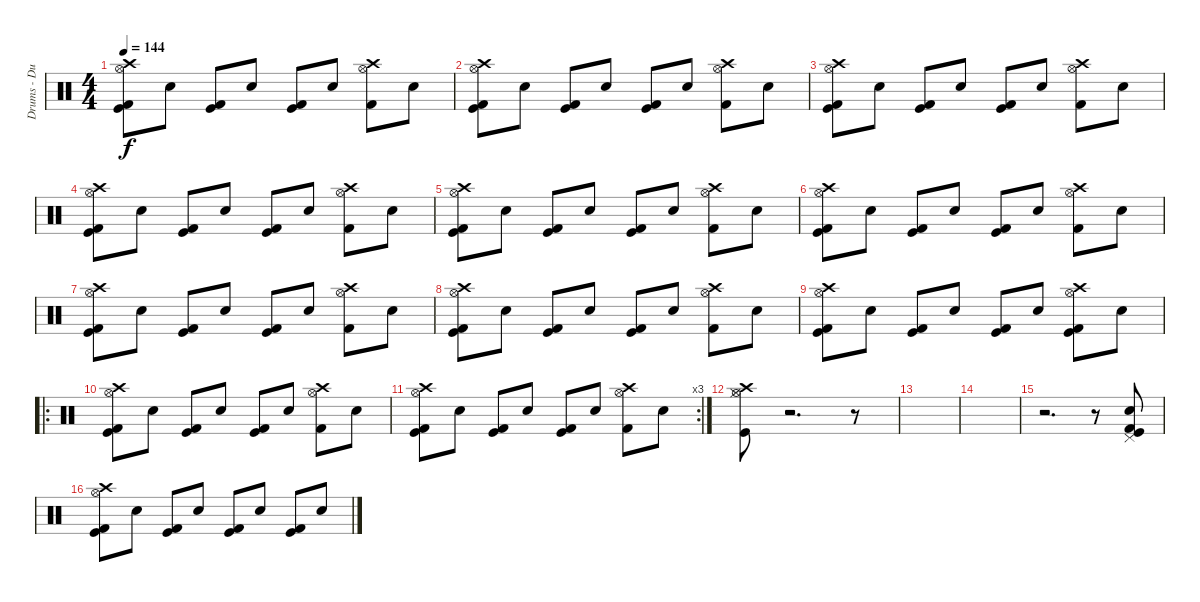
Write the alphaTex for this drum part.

\track ("Drums - Duncan Scott" "Drums - Du") {instrument percussion}
\staff {score}
\articulation defaults
\ts (4 4)
\tempo 144
\clef neutral
\ks c
("Hi-Hat (open)" "Crash high (hit)" "Kick (hit)" "Kick (hit) 2").8{dy f} "Electric Snare (hit)".8 ("Kick (hit)" "Kick (hit) 2").8 "Electric Snare (hit)".8 ("Kick (hit)" "Kick (hit) 2").8 "Electric Snare (hit)".8 ("Hi-Hat (open)" "Crash high (hit)" "Kick (hit) 2").8 "Electric Snare (hit)".8 |
("Hi-Hat (open)" "Crash high (hit)" "Kick (hit)" "Kick (hit) 2").8 "Electric Snare (hit)".8 ("Kick (hit)" "Kick (hit) 2").8 "Electric Snare (hit)".8 ("Kick (hit)" "Kick (hit) 2").8 "Electric Snare (hit)".8 ("Hi-Hat (open)" "Crash high (hit)" "Kick (hit) 2").8 "Electric Snare (hit)".8 |
("Hi-Hat (open)" "Crash high (hit)" "Kick (hit)" "Kick (hit) 2").8 "Electric Snare (hit)".8 ("Kick (hit)" "Kick (hit) 2").8 "Electric Snare (hit)".8 ("Kick (hit)" "Kick (hit) 2").8 "Electric Snare (hit)".8 ("Hi-Hat (open)" "Crash high (hit)" "Kick (hit) 2").8 "Electric Snare (hit)".8 |
("Hi-Hat (open)" "Crash high (hit)" "Kick (hit)" "Kick (hit) 2").8 "Electric Snare (hit)".8 ("Kick (hit)" "Kick (hit) 2").8 "Electric Snare (hit)".8 ("Kick (hit)" "Kick (hit) 2").8 "Electric Snare (hit)".8 ("Hi-Hat (open)" "Crash high (hit)" "Kick (hit) 2").8 "Electric Snare (hit)".8 |
("Hi-Hat (open)" "Crash high (hit)" "Kick (hit)" "Kick (hit) 2").8 "Electric Snare (hit)".8 ("Kick (hit)" "Kick (hit) 2").8 "Electric Snare (hit)".8 ("Kick (hit)" "Kick (hit) 2").8 "Electric Snare (hit)".8 ("Hi-Hat (open)" "Crash high (hit)" "Kick (hit) 2").8 "Electric Snare (hit)".8 |
("Hi-Hat (open)" "Crash high (hit)" "Kick (hit)" "Kick (hit) 2").8 "Electric Snare (hit)".8 ("Kick (hit)" "Kick (hit) 2").8 "Electric Snare (hit)".8 ("Kick (hit)" "Kick (hit) 2").8 "Electric Snare (hit)".8 ("Hi-Hat (open)" "Crash high (hit)" "Kick (hit) 2").8 "Electric Snare (hit)".8 |
("Hi-Hat (open)" "Crash high (hit)" "Kick (hit)" "Kick (hit) 2").8 "Electric Snare (hit)".8 ("Kick (hit)" "Kick (hit) 2").8 "Electric Snare (hit)".8 ("Kick (hit)" "Kick (hit) 2").8 "Electric Snare (hit)".8 ("Hi-Hat (open)" "Crash high (hit)" "Kick (hit) 2").8 "Electric Snare (hit)".8 |
("Crash high (hit)" "Hi-Hat (open)" "Kick (hit)" "Kick (hit) 2").8 "Electric Snare (hit)".8 ("Kick (hit)" "Kick (hit) 2").8 "Electric Snare (hit)".8 ("Kick (hit)" "Kick (hit) 2").8 "Electric Snare (hit)".8 ("Hi-Hat (open)" "Crash high (hit)" "Kick (hit) 2").8 "Electric Snare (hit)".8 |
("Hi-Hat (open)" "Crash high (hit)" "Kick (hit)" "Kick (hit) 2").8 "Electric Snare (hit)".8 ("Kick (hit)" "Kick (hit) 2").8 "Electric Snare (hit)".8 ("Kick (hit)" "Kick (hit) 2").8 "Electric Snare (hit)".8 ("Hi-Hat (open)" "Crash high (hit)" "Kick (hit)" "Kick (hit) 2").8 "Electric Snare (hit)".8 |
\ro
("Hi-Hat (open)" "Crash high (hit)" "Kick (hit)" "Kick (hit) 2").8 "Electric Snare (hit)".8 ("Kick (hit)" "Kick (hit) 2").8 "Electric Snare (hit)".8 ("Kick (hit)" "Kick (hit) 2").8 "Electric Snare (hit)".8 ("Hi-Hat (open)" "Crash high (hit)" "Kick (hit) 2").8 "Electric Snare (hit)".8 |
\rc 3
("Hi-Hat (open)" "Crash high (hit)" "Kick (hit)" "Kick (hit) 2").8 "Electric Snare (hit)".8 ("Kick (hit)" "Kick (hit) 2").8 "Electric Snare (hit)".8 ("Kick (hit)" "Kick (hit) 2").8 "Electric Snare (hit)".8 ("Hi-Hat (open)" "Crash high (hit)" "Kick (hit) 2").8 "Electric Snare (hit)".8 |
("Crash high (hit)" "Hi-Hat (closed)" "Hi-Hat (open)" "Kick (hit)").8 r.2{d} r.8 |
|
|
r.2{d} r.8 ("Electric Snare (hit)" "Pedal Hi-Hat (hit)" "Kick (hit)" "Kick (hit) 2").8 |
("Crash high (hit)" "Hi-Hat (open)" "Kick (hit)" "Kick (hit) 2").8 "Electric Snare (hit)".8 ("Kick (hit)" "Kick (hit) 2").8 "Electric Snare (hit)".8 ("Kick (hit)" "Kick (hit) 2").8 "Electric Snare (hit)".8 ("Kick (hit)" "Kick (hit) 2").8 "Electric Snare (hit)".8
